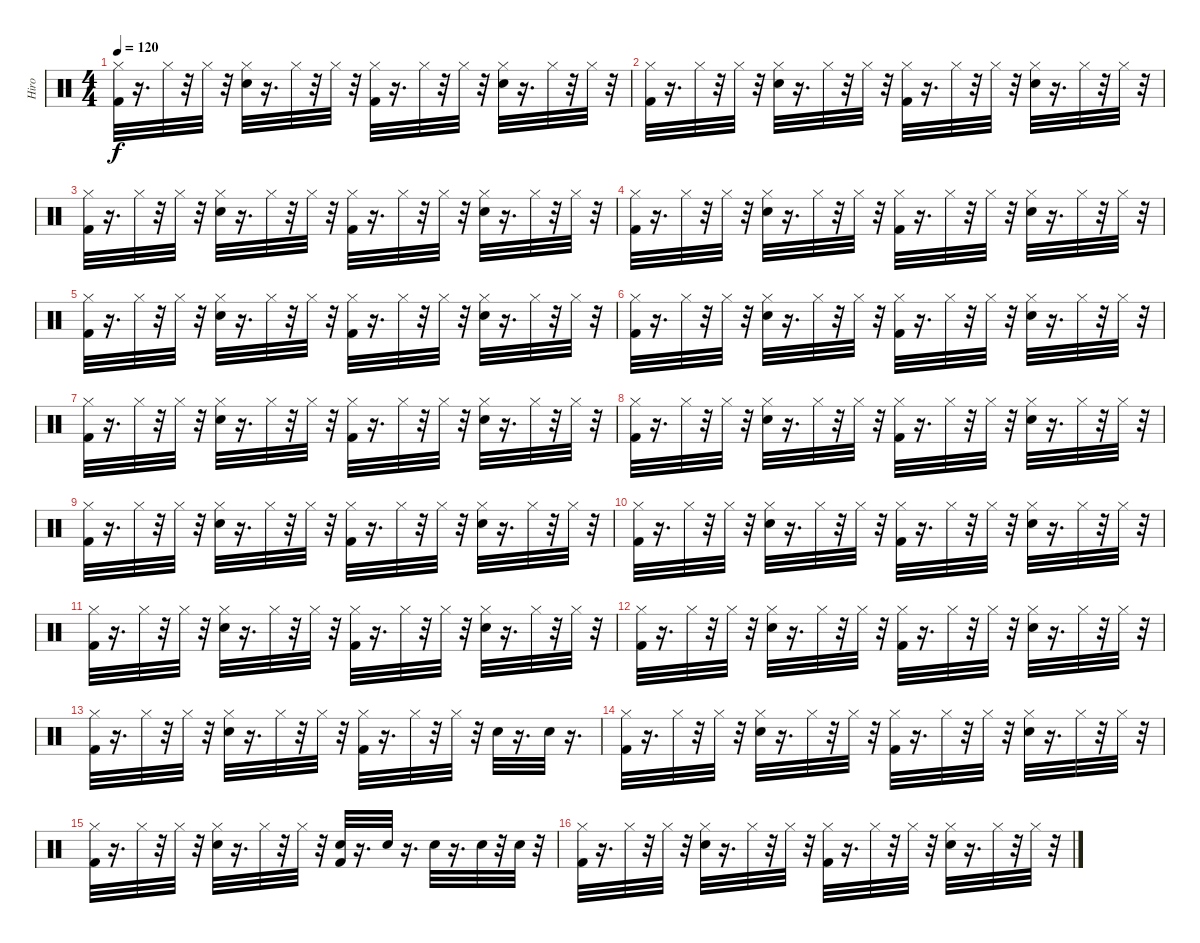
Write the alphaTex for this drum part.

\track ("Hiro" "Hiro") {instrument percussion}
\staff {score}
\articulation defaults
\ts (4 4)
\tempo 120
\clef neutral
\ks c
("Kick (hit) 2" "Hi-Hat (closed)").32{dy f} r.16{d} "Hi-Hat (closed)".32 r.32 "Hi-Hat (closed)".32 r.32 ("Hi-Hat (closed)" "Snare (hit) 2").32 r.16{d} "Hi-Hat (closed)".32 r.32 "Hi-Hat (closed)".32 r.32 ("Hi-Hat (closed)" "Kick (hit) 2").32 r.16{d} "Hi-Hat (closed)".32 r.32 "Hi-Hat (closed)".32 r.32 ("Hi-Hat (closed)" "Snare (hit) 2").32 r.16{d} "Hi-Hat (closed)".32 r.32 "Hi-Hat (closed)".32 r.32 |
("Kick (hit) 2" "Hi-Hat (closed)").32 r.16{d} "Hi-Hat (closed)".32 r.32 "Hi-Hat (closed)".32 r.32 ("Hi-Hat (closed)" "Snare (hit) 2").32 r.16{d} "Hi-Hat (closed)".32 r.32 "Hi-Hat (closed)".32 r.32 ("Kick (hit) 2" "Hi-Hat (closed)").32 r.16{d} "Hi-Hat (closed)".32 r.32 "Hi-Hat (closed)".32 r.32 ("Hi-Hat (closed)" "Snare (hit) 2").32 r.16{d} "Hi-Hat (closed)".32 r.32 "Hi-Hat (closed)".32 r.32 |
("Kick (hit) 2" "Hi-Hat (closed)").32 r.16{d} "Hi-Hat (closed)".32 r.32 "Hi-Hat (closed)".32 r.32 ("Hi-Hat (closed)" "Snare (hit) 2").32 r.16{d} "Hi-Hat (closed)".32 r.32 "Hi-Hat (closed)".32 r.32 ("Hi-Hat (closed)" "Kick (hit) 2").32 r.16{d} "Hi-Hat (closed)".32 r.32 "Hi-Hat (closed)".32 r.32 ("Hi-Hat (closed)" "Snare (hit) 2").32 r.16{d} "Hi-Hat (closed)".32 r.32 "Hi-Hat (closed)".32 r.32 |
("Kick (hit) 2" "Hi-Hat (closed)").32 r.16{d} "Hi-Hat (closed)".32 r.32 "Hi-Hat (closed)".32 r.32 ("Hi-Hat (closed)" "Snare (hit) 2").32 r.16{d} "Hi-Hat (closed)".32 r.32 "Hi-Hat (closed)".32 r.32 ("Hi-Hat (closed)" "Kick (hit) 2").32 r.16{d} "Hi-Hat (closed)".32 r.32 "Hi-Hat (closed)".32 r.32 ("Hi-Hat (closed)" "Snare (hit) 2").32 r.16{d} "Hi-Hat (closed)".32 r.32 "Hi-Hat (closed)".32 r.32 |
("Kick (hit) 2" "Hi-Hat (closed)").32 r.16{d} "Hi-Hat (closed)".32 r.32 "Hi-Hat (closed)".32 r.32 ("Hi-Hat (closed)" "Snare (hit) 2").32 r.16{d} "Hi-Hat (closed)".32 r.32 "Hi-Hat (closed)".32 r.32 ("Hi-Hat (closed)" "Kick (hit) 2").32 r.16{d} "Hi-Hat (closed)".32 r.32 "Hi-Hat (closed)".32 r.32 ("Hi-Hat (closed)" "Snare (hit) 2").32 r.16{d} "Hi-Hat (closed)".32 r.32 "Hi-Hat (closed)".32 r.32 |
("Kick (hit) 2" "Hi-Hat (closed)").32 r.16{d} "Hi-Hat (closed)".32 r.32 "Hi-Hat (closed)".32 r.32 ("Hi-Hat (closed)" "Snare (hit) 2").32 r.16{d} "Hi-Hat (closed)".32 r.32 "Hi-Hat (closed)".32 r.32 ("Hi-Hat (closed)" "Kick (hit) 2").32 r.16{d} "Hi-Hat (closed)".32 r.32 "Hi-Hat (closed)".32 r.32 ("Hi-Hat (closed)" "Snare (hit) 2").32 r.16{d} "Hi-Hat (closed)".32 r.32 "Hi-Hat (closed)".32 r.32 |
("Kick (hit) 2" "Hi-Hat (closed)").32 r.16{d} "Hi-Hat (closed)".32 r.32 "Hi-Hat (closed)".32 r.32 ("Hi-Hat (closed)" "Snare (hit) 2").32 r.16{d} "Hi-Hat (closed)".32 r.32 "Hi-Hat (closed)".32 r.32 ("Hi-Hat (closed)" "Kick (hit) 2").32 r.16{d} "Hi-Hat (closed)".32 r.32 "Hi-Hat (closed)".32 r.32 ("Hi-Hat (closed)" "Snare (hit) 2").32 r.16{d} "Hi-Hat (closed)".32 r.32 "Hi-Hat (closed)".32 r.32 |
("Kick (hit) 2" "Hi-Hat (closed)").32 r.16{d} "Hi-Hat (closed)".32 r.32 "Hi-Hat (closed)".32 r.32 ("Hi-Hat (closed)" "Snare (hit) 2").32 r.16{d} "Hi-Hat (closed)".32 r.32 "Hi-Hat (closed)".32 r.32 ("Hi-Hat (closed)" "Kick (hit) 2").32 r.16{d} "Hi-Hat (closed)".32 r.32 "Hi-Hat (closed)".32 r.32 ("Hi-Hat (closed)" "Snare (hit) 2").32 r.16{d} "Hi-Hat (closed)".32 r.32 "Hi-Hat (closed)".32 r.32 |
("Kick (hit) 2" "Hi-Hat (closed)").32 r.16{d} "Hi-Hat (closed)".32 r.32 "Hi-Hat (closed)".32 r.32 ("Hi-Hat (closed)" "Snare (hit) 2").32 r.16{d} "Hi-Hat (closed)".32 r.32 "Hi-Hat (closed)".32 r.32 ("Hi-Hat (closed)" "Kick (hit) 2").32 r.16{d} "Hi-Hat (closed)".32 r.32 "Hi-Hat (closed)".32 r.32 ("Hi-Hat (closed)" "Snare (hit) 2").32 r.16{d} "Hi-Hat (closed)".32 r.32 "Hi-Hat (closed)".32 r.32 |
("Kick (hit) 2" "Hi-Hat (closed)").32 r.16{d} "Hi-Hat (closed)".32 r.32 "Hi-Hat (closed)".32 r.32 ("Hi-Hat (closed)" "Snare (hit) 2").32 r.16{d} "Hi-Hat (closed)".32 r.32 "Hi-Hat (closed)".32 r.32 ("Hi-Hat (closed)" "Kick (hit) 2").32 r.16{d} "Hi-Hat (closed)".32 r.32 "Hi-Hat (closed)".32 r.32 ("Hi-Hat (closed)" "Snare (hit) 2").32 r.16{d} "Hi-Hat (closed)".32 r.32 "Hi-Hat (closed)".32 r.32 |
("Kick (hit) 2" "Hi-Hat (closed)").32 r.16{d} "Hi-Hat (closed)".32 r.32 "Hi-Hat (closed)".32 r.32 ("Hi-Hat (closed)" "Snare (hit) 2").32 r.16{d} "Hi-Hat (closed)".32 r.32 "Hi-Hat (closed)".32 r.32 ("Hi-Hat (closed)" "Kick (hit) 2").32 r.16{d} "Hi-Hat (closed)".32 r.32 "Hi-Hat (closed)".32 r.32 ("Hi-Hat (closed)" "Snare (hit) 2").32 r.16{d} "Hi-Hat (closed)".32 r.32 "Hi-Hat (closed)".32 r.32 |
("Kick (hit) 2" "Hi-Hat (closed)").32 r.16{d} "Hi-Hat (closed)".32 r.32 "Hi-Hat (closed)".32 r.32 ("Hi-Hat (closed)" "Snare (hit) 2").32 r.16{d} "Hi-Hat (closed)".32 r.32 "Hi-Hat (closed)".32 r.32 ("Kick (hit) 2" "Hi-Hat (closed)").32 r.16{d} "Hi-Hat (closed)".32 r.32 "Hi-Hat (closed)".32 r.32 ("Hi-Hat (closed)" "Snare (hit) 2").32 r.16{d} "Hi-Hat (closed)".32 r.32 "Hi-Hat (closed)".32 r.32 |
("Kick (hit) 2" "Hi-Hat (closed)").32 r.16{d} "Hi-Hat (closed)".32 r.32 "Hi-Hat (closed)".32 r.32 ("Hi-Hat (closed)" "Snare (hit) 2").32 r.16{d} "Hi-Hat (closed)".32 r.32 "Hi-Hat (closed)".32 r.32 ("Kick (hit) 2" "Hi-Hat (closed)").32 r.16{d} "Hi-Hat (closed)".32 r.32 "Hi-Hat (closed)".32 r.32 "Snare (hit) 2".32 r.16{d} "Snare (hit) 2".32 r.16{d} |
("Kick (hit) 2" "Hi-Hat (closed)").32 r.16{d} "Hi-Hat (closed)".32 r.32 "Hi-Hat (closed)".32 r.32 ("Hi-Hat (closed)" "Snare (hit) 2").32 r.16{d} "Hi-Hat (closed)".32 r.32 "Hi-Hat (closed)".32 r.32 ("Kick (hit) 2" "Hi-Hat (closed)").32 r.16{d} "Hi-Hat (closed)".32 r.32 "Hi-Hat (closed)".32 r.32 ("Hi-Hat (closed)" "Snare (hit) 2").32 r.16{d} "Hi-Hat (closed)".32 r.32 "Hi-Hat (closed)".32 r.32 |
("Kick (hit) 2" "Hi-Hat (closed)").32 r.16{d} "Hi-Hat (closed)".32 r.32 "Hi-Hat (closed)".32 r.32 ("Hi-Hat (closed)" "Snare (hit) 2").32 r.16{d} "Hi-Hat (closed)".32 r.32 "Hi-Hat (closed)".32 r.32 ("Snare (hit) 2" "Kick (hit) 2").32 r.16{d} "Snare (hit) 2".32 r.16{d} "Snare (hit) 2".32 r.16{d} "Snare (hit) 2".32 r.32 "Snare (hit) 2".32 r.32 |
("Kick (hit) 2" "Hi-Hat (closed)").32 r.16{d} "Hi-Hat (closed)".32 r.32 "Hi-Hat (closed)".32 r.32 ("Hi-Hat (closed)" "Snare (hit) 2").32 r.16{d} "Hi-Hat (closed)".32 r.32 "Hi-Hat (closed)".32 r.32 ("Kick (hit) 2" "Hi-Hat (closed)").32 r.16{d} "Hi-Hat (closed)".32 r.32 "Hi-Hat (closed)".32 r.32 ("Hi-Hat (closed)" "Snare (hit) 2").32 r.16{d} "Hi-Hat (closed)".32 r.32 "Hi-Hat (closed)".32 r.32
